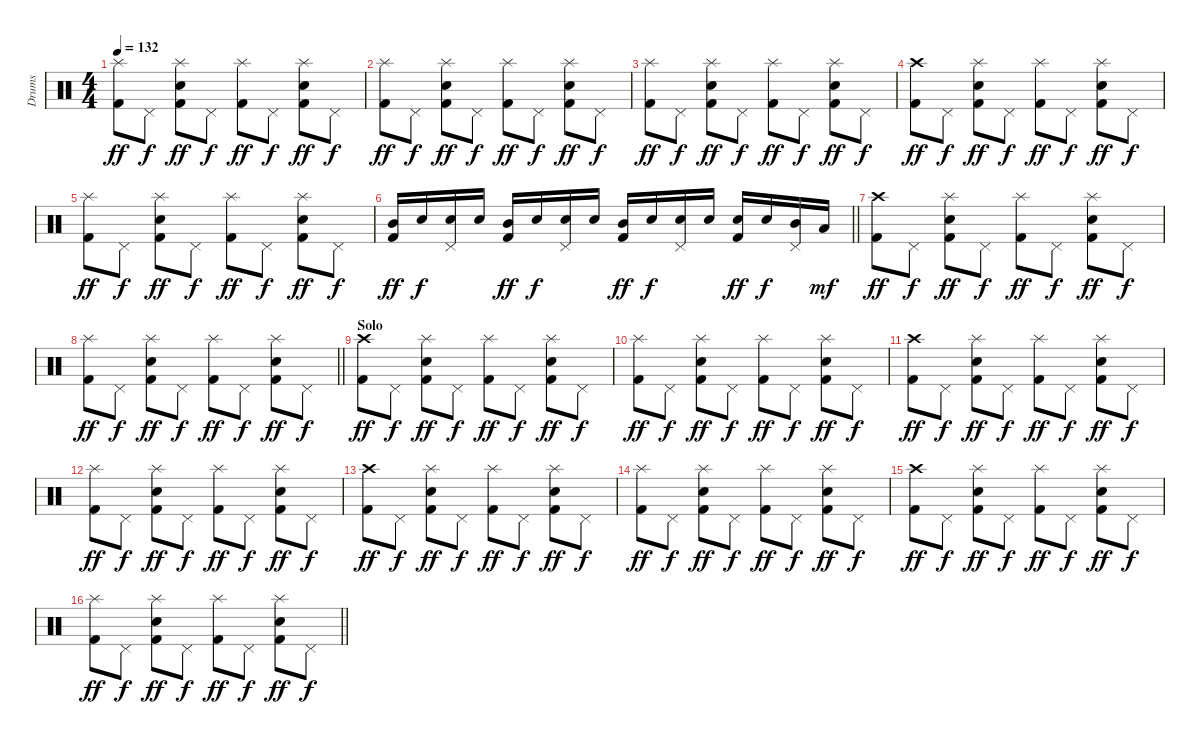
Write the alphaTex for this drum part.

\track ("Drums" "Drums") {instrument percussion}
\staff {score}
\articulation defaults
\ts (4 4)
\tempo 132
\clef neutral
\ks c
("Splash (hit)" "Kick (hit) 2").8{dy ff} "Pedal Hi-Hat (hit)".8{dy f} ("Splash (hit)" "Snare (hit) 2" "Kick (hit) 2").8{dy ff} "Pedal Hi-Hat (hit)".8{dy f} ("Splash (hit)" "Kick (hit) 2").8{dy ff} "Pedal Hi-Hat (hit)".8{dy f} ("Splash (hit)" "Snare (hit) 2" "Kick (hit) 2").8{dy ff} "Pedal Hi-Hat (hit)".8{dy f} |
("Splash (hit)" "Kick (hit) 2").8{dy ff} "Pedal Hi-Hat (hit)".8{dy f} ("Splash (hit)" "Snare (hit) 2" "Kick (hit) 2").8{dy ff} "Pedal Hi-Hat (hit)".8{dy f} ("Splash (hit)" "Kick (hit) 2").8{dy ff} "Pedal Hi-Hat (hit)".8{dy f} ("Splash (hit)" "Snare (hit) 2" "Kick (hit) 2").8{dy ff} "Pedal Hi-Hat (hit)".8{dy f} |
("Splash (hit)" "Kick (hit) 2").8{dy ff} "Pedal Hi-Hat (hit)".8{dy f} ("Splash (hit)" "Snare (hit) 2" "Kick (hit) 2").8{dy ff} "Pedal Hi-Hat (hit)".8{dy f} ("Splash (hit)" "Kick (hit) 2").8{dy ff} "Pedal Hi-Hat (hit)".8{dy f} ("Splash (hit)" "Snare (hit) 2" "Kick (hit) 2").8{dy ff} "Pedal Hi-Hat (hit)".8{dy f} |
("Crash high (hit)" "Kick (hit) 2").8{dy ff} "Pedal Hi-Hat (hit)".8{dy f} ("Splash (hit)" "Snare (hit) 2" "Kick (hit) 2").8{dy ff} "Pedal Hi-Hat (hit)".8{dy f} ("Splash (hit)" "Kick (hit) 2").8{dy ff} "Pedal Hi-Hat (hit)".8{dy f} ("Splash (hit)" "Snare (hit) 2" "Kick (hit) 2").8{dy ff} "Pedal Hi-Hat (hit)".8{dy f} |
("Splash (hit)" "Kick (hit) 2").8{dy ff} "Pedal Hi-Hat (hit)".8{dy f} ("Splash (hit)" "Snare (hit) 2" "Kick (hit) 2").8{dy ff} "Pedal Hi-Hat (hit)".8{dy f} ("Splash (hit)" "Kick (hit) 2").8{dy ff} "Pedal Hi-Hat (hit)".8{dy f} ("Splash (hit)" "Snare (hit) 2" "Kick (hit) 2").8{dy ff} "Pedal Hi-Hat (hit)".8{dy f} |
\barLineRight lightlight
("Mid Tom (hit)" "Kick (hit) 2").16{dy ff} "Snare (hit) 2".16{dy f} ("Pedal Hi-Hat (hit)" "Snare (hit) 2").16 "Snare (hit) 2".16 ("Mid Tom (hit)" "Kick (hit) 2").16{dy ff} "Snare (hit) 2".16{dy f} ("Pedal Hi-Hat (hit)" "Snare (hit) 2").16 "Snare (hit) 2".16 ("Mid Tom (hit)" "Kick (hit) 2").16{dy ff} "Snare (hit) 2".16{dy f} ("Pedal Hi-Hat (hit)" "Snare (hit) 2").16 "Snare (hit) 2".16 ("Electric Snare (hit)" "Kick (hit) 2").16{dy ff} "Snare (hit) 2".16{dy f} ("Pedal Hi-Hat (hit)" "Mid Tom (hit)").16 "Low Tom (hit)".16{dy mf} |
("Crash high (hit)" "Kick (hit) 2").8{dy ff} "Pedal Hi-Hat (hit)".8{dy f} ("Splash (hit)" "Snare (hit) 2" "Kick (hit) 2").8{dy ff} "Pedal Hi-Hat (hit)".8{dy f} ("Splash (hit)" "Kick (hit) 2").8{dy ff} "Pedal Hi-Hat (hit)".8{dy f} ("Splash (hit)" "Snare (hit) 2" "Kick (hit) 2").8{dy ff} "Pedal Hi-Hat (hit)".8{dy f} |
\barLineRight lightlight
("Splash (hit)" "Kick (hit) 2").8{dy ff} "Pedal Hi-Hat (hit)".8{dy f} ("Splash (hit)" "Snare (hit) 2" "Kick (hit) 2").8{dy ff} "Pedal Hi-Hat (hit)".8{dy f} ("Splash (hit)" "Kick (hit) 2").8{dy ff} "Pedal Hi-Hat (hit)".8{dy f} ("Splash (hit)" "Snare (hit) 2" "Kick (hit) 2").8{dy ff} "Pedal Hi-Hat (hit)".8{dy f} |
\section ("" "Solo")
("Crash high (hit)" "Kick (hit) 2").8{dy ff} "Pedal Hi-Hat (hit)".8{dy f} ("Splash (hit)" "Snare (hit) 2" "Kick (hit) 2").8{dy ff} "Pedal Hi-Hat (hit)".8{dy f} ("Splash (hit)" "Kick (hit) 2").8{dy ff} "Pedal Hi-Hat (hit)".8{dy f} ("Splash (hit)" "Snare (hit) 2" "Kick (hit) 2").8{dy ff} "Pedal Hi-Hat (hit)".8{dy f} |
("Splash (hit)" "Kick (hit) 2").8{dy ff} "Pedal Hi-Hat (hit)".8{dy f} ("Splash (hit)" "Snare (hit) 2" "Kick (hit) 2").8{dy ff} "Pedal Hi-Hat (hit)".8{dy f} ("Splash (hit)" "Kick (hit) 2").8{dy ff} "Pedal Hi-Hat (hit)".8{dy f} ("Splash (hit)" "Snare (hit) 2" "Kick (hit) 2").8{dy ff} "Pedal Hi-Hat (hit)".8{dy f} |
("Crash high (hit)" "Kick (hit) 2").8{dy ff} "Pedal Hi-Hat (hit)".8{dy f} ("Splash (hit)" "Snare (hit) 2" "Kick (hit) 2").8{dy ff} "Pedal Hi-Hat (hit)".8{dy f} ("Splash (hit)" "Kick (hit) 2").8{dy ff} "Pedal Hi-Hat (hit)".8{dy f} ("Splash (hit)" "Snare (hit) 2" "Kick (hit) 2").8{dy ff} "Pedal Hi-Hat (hit)".8{dy f} |
("Splash (hit)" "Kick (hit) 2").8{dy ff} "Pedal Hi-Hat (hit)".8{dy f} ("Splash (hit)" "Snare (hit) 2" "Kick (hit) 2").8{dy ff} "Pedal Hi-Hat (hit)".8{dy f} ("Splash (hit)" "Kick (hit) 2").8{dy ff} "Pedal Hi-Hat (hit)".8{dy f} ("Splash (hit)" "Snare (hit) 2" "Kick (hit) 2").8{dy ff} "Pedal Hi-Hat (hit)".8{dy f} |
("Crash high (hit)" "Kick (hit) 2").8{dy ff} "Pedal Hi-Hat (hit)".8{dy f} ("Splash (hit)" "Snare (hit) 2" "Kick (hit) 2").8{dy ff} "Pedal Hi-Hat (hit)".8{dy f} ("Splash (hit)" "Kick (hit) 2").8{dy ff} "Pedal Hi-Hat (hit)".8{dy f} ("Splash (hit)" "Snare (hit) 2" "Kick (hit) 2").8{dy ff} "Pedal Hi-Hat (hit)".8{dy f} |
("Splash (hit)" "Kick (hit) 2").8{dy ff} "Pedal Hi-Hat (hit)".8{dy f} ("Splash (hit)" "Snare (hit) 2" "Kick (hit) 2").8{dy ff} "Pedal Hi-Hat (hit)".8{dy f} ("Splash (hit)" "Kick (hit) 2").8{dy ff} "Pedal Hi-Hat (hit)".8{dy f} ("Splash (hit)" "Snare (hit) 2" "Kick (hit) 2").8{dy ff} "Pedal Hi-Hat (hit)".8{dy f} |
("Crash high (hit)" "Kick (hit) 2").8{dy ff} "Pedal Hi-Hat (hit)".8{dy f} ("Splash (hit)" "Snare (hit) 2" "Kick (hit) 2").8{dy ff} "Pedal Hi-Hat (hit)".8{dy f} ("Splash (hit)" "Kick (hit) 2").8{dy ff} "Pedal Hi-Hat (hit)".8{dy f} ("Splash (hit)" "Snare (hit) 2" "Kick (hit) 2").8{dy ff} "Pedal Hi-Hat (hit)".8{dy f} |
\barLineRight lightlight
("Splash (hit)" "Kick (hit) 2").8{dy ff} "Pedal Hi-Hat (hit)".8{dy f} ("Splash (hit)" "Snare (hit) 2" "Kick (hit) 2").8{dy ff} "Pedal Hi-Hat (hit)".8{dy f} ("Splash (hit)" "Kick (hit) 2").8{dy ff} "Pedal Hi-Hat (hit)".8{dy f} ("Splash (hit)" "Snare (hit) 2" "Kick (hit) 2").8{dy ff} "Pedal Hi-Hat (hit)".8{dy f}
